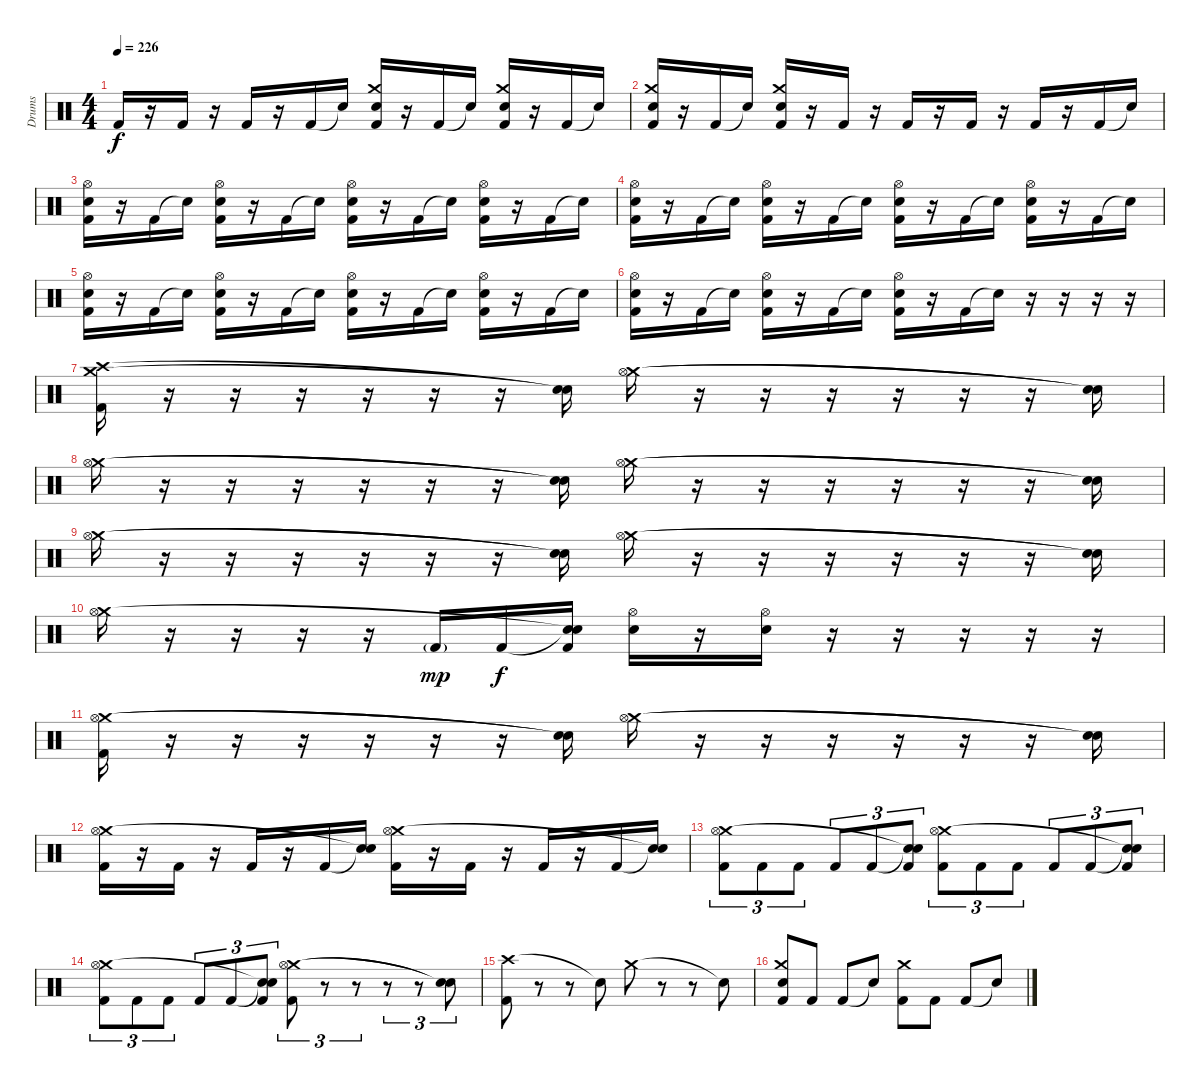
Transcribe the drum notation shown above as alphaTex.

\track ("Drums" "Drums") {instrument percussion}
\staff {score}
\articulation defaults
\ts (4 4)
\tempo 226
\clef neutral
\ks c "Kick (hit) 2".16{dy f}
r.16 "Kick (hit) 2".16 r.16 "Kick (hit) 2".16 r.16 "Kick (hit) 2".16 "Snare (hit)"{t}.16 ("Crash medium (hit)" "Electric Snare (hit)" "Kick (hit) 2").16 r.16 "Kick (hit) 2".16 "Snare (hit)"{t}.16 ("Crash medium (hit)" "Electric Snare (hit)" "Kick (hit) 2").16 r.16 "Kick (hit) 2".16 "Snare (hit)"{t}.16 |
("Crash medium (hit)" "Electric Snare (hit)" "Kick (hit) 2").16 r.16 "Kick (hit) 2".16 "Snare (hit)"{t}.16 ("Crash medium (hit)" "Electric Snare (hit)" "Kick (hit) 2").16 r.16 "Kick (hit) 2".16 r.16 "Kick (hit) 2".16 r.16 "Kick (hit) 2".16 r.16 "Kick (hit) 2".16 r.16 "Kick (hit) 2".16 "Snare (hit)"{t}.16 |
("Hi-Hat (open)" "Electric Snare (hit)" "Kick (hit) 2").16 r.16 "Kick (hit) 2".16 "Snare (hit)"{t}.16 ("Hi-Hat (open)" "Electric Snare (hit)" "Kick (hit) 2").16 r.16 "Kick (hit) 2".16 "Snare (hit)"{t}.16 ("Hi-Hat (open)" "Electric Snare (hit)" "Kick (hit) 2").16 r.16 "Kick (hit) 2".16 "Snare (hit)"{t}.16 ("Hi-Hat (open)" "Electric Snare (hit)" "Kick (hit) 2").16 r.16 "Kick (hit) 2".16 "Snare (hit)"{t}.16 |
("Hi-Hat (open)" "Electric Snare (hit)" "Kick (hit) 2").16 r.16 "Kick (hit) 2".16 "Snare (hit)"{t}.16 ("Hi-Hat (open)" "Electric Snare (hit)" "Kick (hit) 2").16 r.16 "Kick (hit) 2".16 "Snare (hit)"{t}.16 ("Hi-Hat (open)" "Electric Snare (hit)" "Kick (hit) 2").16 r.16 "Kick (hit) 2".16 "Snare (hit)"{t}.16 ("Hi-Hat (open)" "Electric Snare (hit)" "Kick (hit) 2").16 r.16 "Kick (hit) 2".16 "Snare (hit)"{t}.16 |
("Hi-Hat (open)" "Electric Snare (hit)" "Kick (hit) 2").16 r.16 "Kick (hit) 2".16 "Snare (hit)"{t}.16 ("Hi-Hat (open)" "Electric Snare (hit)" "Kick (hit) 2").16 r.16 "Kick (hit) 2".16 "Snare (hit)"{t}.16 ("Hi-Hat (open)" "Electric Snare (hit)" "Kick (hit) 2").16 r.16 "Kick (hit) 2".16 "Snare (hit)"{t}.16 ("Hi-Hat (open)" "Electric Snare (hit)" "Kick (hit) 2").16 r.16 "Kick (hit) 2".16 "Snare (hit)"{t}.16 |
("Hi-Hat (open)" "Electric Snare (hit)" "Kick (hit) 2").16 r.16 "Kick (hit) 2".16 "Snare (hit)"{t}.16 ("Hi-Hat (open)" "Electric Snare (hit)" "Kick (hit) 2").16 r.16 "Kick (hit) 2".16 "Snare (hit)"{t}.16 ("Hi-Hat (open)" "Electric Snare (hit)" "Kick (hit) 2").16 r.16 "Kick (hit) 2".16 "Snare (hit)"{t}.16 r.16 r.16 r.16 r.16 |
("Crash medium (hit)" "Crash high (hit)" "Kick (hit) 2").16 r.16 r.16 r.16 r.16 r.16 r.16 ("Snare (hit)"{t} "Snare (hit)"{t}).16 ("Crash medium (hit)" "Hi-Hat (open)").16 r.16 r.16 r.16 r.16 r.16 r.16 ("Snare (hit)"{t} "Snare (hit)"{t}).16 |
("Crash medium (hit)" "Hi-Hat (open)").16 r.16 r.16 r.16 r.16 r.16 r.16 ("Snare (hit)"{t} "Snare (hit)"{t}).16 ("Crash medium (hit)" "Hi-Hat (open)").16 r.16 r.16 r.16 r.16 r.16 r.16 ("Snare (hit)"{t} "Snare (hit)"{t}).16 |
("Crash medium (hit)" "Hi-Hat (open)").16 r.16 r.16 r.16 r.16 r.16 r.16 ("Snare (hit)"{t} "Snare (hit)"{t}).16 ("Crash medium (hit)" "Hi-Hat (open)").16 r.16 r.16 r.16 r.16 r.16 r.16 ("Snare (hit)"{t} "Snare (hit)"{t}).16 |
("Crash medium (hit)" "Hi-Hat (open)").16 r.16 r.16 r.16 r.16 "Kick (hit) 2"{g}.16{dy mp} "Kick (hit) 2".16{dy f} ("Snare (hit)"{t} "Snare (hit)"{t} "Kick (hit) 2").16 ("Hi-Hat (open)" "Electric Snare (hit)").16 r.16 ("Hi-Hat (open)" "Electric Snare (hit)").16 r.16 r.16 r.16 r.16 r.16 |
("Crash medium (hit)" "Hi-Hat (open)" "Kick (hit) 2").16 r.16 r.16 r.16 r.16 r.16 r.16 ("Snare (hit)"{t} "Snare (hit)"{t}).16 ("Crash medium (hit)" "Hi-Hat (open)").16 r.16 r.16 r.16 r.16 r.16 r.16 ("Snare (hit)"{t} "Snare (hit)"{t}).16 |
("Crash medium (hit)" "Hi-Hat (open)" "Kick (hit) 2").16 r.16 "Kick (hit) 2".16 r.16 "Kick (hit) 2".16 r.16 "Kick (hit) 2".16 ("Snare (hit)"{t} "Snare (hit)"{t}).16 ("Crash medium (hit)" "Hi-Hat (open)" "Kick (hit) 2").16 r.16 "Kick (hit) 2".16 r.16 "Kick (hit) 2".16 r.16 "Kick (hit) 2".16 ("Snare (hit)"{t} "Snare (hit)"{t}).16 |
("Crash medium (hit)" "Hi-Hat (open)" "Kick (hit) 2").8{tu (3 2)} "Kick (hit) 2".8{tu (3 2)} "Kick (hit) 2".8{tu (3 2)} "Kick (hit) 2".8{tu (3 2)} "Kick (hit) 2".8{tu (3 2)} ("Snare (hit)"{t} "Snare (hit)"{t} "Kick (hit) 2").8{tu (3 2)} ("Crash medium (hit)" "Hi-Hat (open)" "Kick (hit) 2").8{tu (3 2)} "Kick (hit) 2".8{tu (3 2)} "Kick (hit) 2".8{tu (3 2)} "Kick (hit) 2".8{tu (3 2)} "Kick (hit) 2".8{tu (3 2)} ("Snare (hit)"{t} "Snare (hit)"{t} "Kick (hit) 2").8{tu (3 2)} |
("Crash medium (hit)" "Hi-Hat (open)" "Kick (hit) 2").8{tu (3 2)} "Kick (hit) 2".8{tu (3 2)} "Kick (hit) 2".8{tu (3 2)} "Kick (hit) 2".8{tu (3 2)} "Kick (hit) 2".8{tu (3 2)} ("Snare (hit)"{t} "Snare (hit)"{t} "Kick (hit) 2").8{tu (3 2)} ("Crash medium (hit)" "Hi-Hat (open)" "Kick (hit) 2").8{tu (3 2)} r.8{tu (3 2)} r.8{tu (3 2)} r.8{tu (3 2)} r.8{tu (3 2)} ("Snare (hit)"{t} "Snare (hit)"{t}).8{tu (3 2)} |
("Crash high (hit)" "Kick (hit) 2").8 r.8 r.8 "Snare (hit)"{t}.8 "Crash medium (hit)".8 r.8 r.8 "Snare (hit)"{t}.8 |
("Crash medium (hit)" "Electric Snare (hit)" "Kick (hit) 2").8 "Kick (hit) 2".8 "Kick (hit) 2".8 "Snare (hit)"{t}.8 ("Crash medium (hit)" "Kick (hit) 2").8 "Kick (hit) 2".8 "Kick (hit) 2".8 "Snare (hit)"{t}.8
